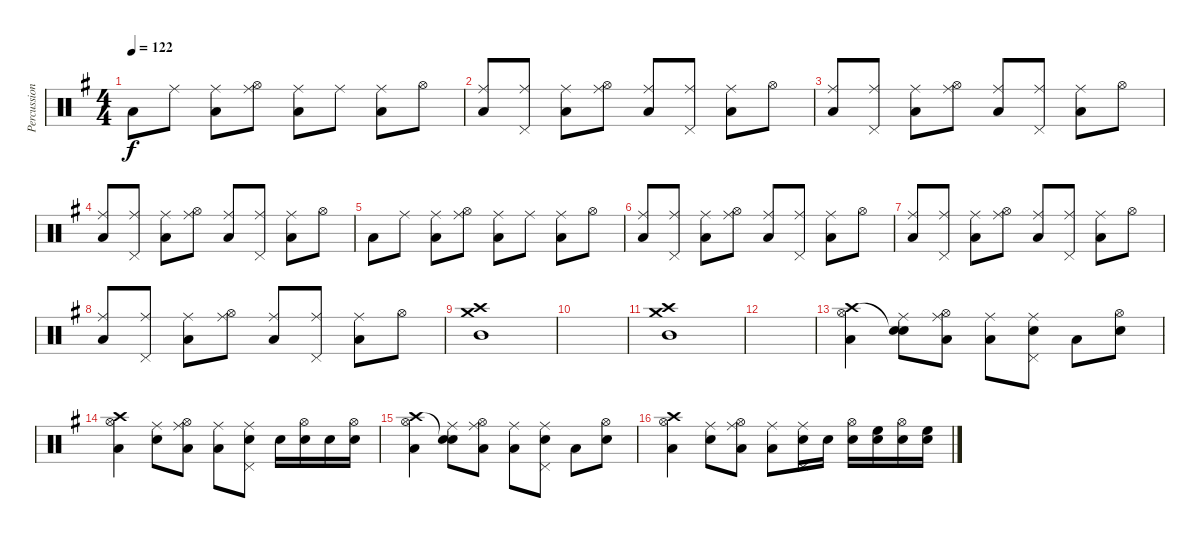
\track ("Percussion" "Percussion") {instrument percussion}
\staff {score}
\articulation defaults
\ts (4 4)
\tempo 122
\clef neutral
\ks g "Low Tom (hit)".8{dy f} "Ride (middle)".8
("Ride (middle)" "Low Tom (hit)").8 ("Ride (middle)" "Hi-Hat (open)").8 ("Ride (middle)" "Low Tom (hit)").8 "Ride (middle)".8 ("Ride (middle)" "Low Tom (hit)").8 "Hi-Hat (open)".8 |
("Ride (middle)" "Low Tom (hit)").8 ("Ride (middle)" "Pedal Hi-Hat (hit)").8 ("Ride (middle)" "Low Tom (hit)").8 ("Ride (middle)" "Hi-Hat (open)").8 ("Ride (middle)" "Low Tom (hit)").8 ("Ride (middle)" "Pedal Hi-Hat (hit)").8 ("Ride (middle)" "Low Tom (hit)").8 "Hi-Hat (open)".8 |
("Ride (middle)" "Low Tom (hit)").8 ("Ride (middle)" "Pedal Hi-Hat (hit)").8 ("Ride (middle)" "Low Tom (hit)").8 ("Ride (middle)" "Hi-Hat (open)").8 ("Ride (middle)" "Low Tom (hit)").8 ("Ride (middle)" "Pedal Hi-Hat (hit)").8 ("Ride (middle)" "Low Tom (hit)").8 "Hi-Hat (open)".8 |
("Ride (middle)" "Low Tom (hit)").8 ("Ride (middle)" "Pedal Hi-Hat (hit)").8 ("Ride (middle)" "Low Tom (hit)").8 ("Ride (middle)" "Hi-Hat (open)").8 ("Ride (middle)" "Low Tom (hit)").8 ("Ride (middle)" "Pedal Hi-Hat (hit)").8 ("Ride (middle)" "Low Tom (hit)").8 "Hi-Hat (open)".8 |
"Low Tom (hit)".8 "Ride (middle)".8 ("Ride (middle)" "Low Tom (hit)").8 ("Ride (middle)" "Hi-Hat (open)").8 ("Ride (middle)" "Low Tom (hit)").8 "Ride (middle)".8 ("Ride (middle)" "Low Tom (hit)").8 "Hi-Hat (open)".8 |
("Ride (middle)" "Low Tom (hit)").8 ("Ride (middle)" "Pedal Hi-Hat (hit)").8 ("Ride (middle)" "Low Tom (hit)").8 ("Ride (middle)" "Hi-Hat (open)").8 ("Ride (middle)" "Low Tom (hit)").8 ("Ride (middle)" "Pedal Hi-Hat (hit)").8 ("Ride (middle)" "Low Tom (hit)").8 "Hi-Hat (open)".8 |
("Ride (middle)" "Low Tom (hit)").8 ("Ride (middle)" "Pedal Hi-Hat (hit)").8 ("Ride (middle)" "Low Tom (hit)").8 ("Ride (middle)" "Hi-Hat (open)").8 ("Ride (middle)" "Low Tom (hit)").8 ("Ride (middle)" "Pedal Hi-Hat (hit)").8 ("Ride (middle)" "Low Tom (hit)").8 "Hi-Hat (open)".8 |
("Ride (middle)" "Low Tom (hit)").8 ("Ride (middle)" "Pedal Hi-Hat (hit)").8 ("Ride (middle)" "Low Tom (hit)").8 ("Ride (middle)" "Hi-Hat (open)").8 ("Ride (middle)" "Low Tom (hit)").8 ("Ride (middle)" "Pedal Hi-Hat (hit)").8 ("Ride (middle)" "Low Tom (hit)").8 "Hi-Hat (open)".8 |
("Crash high (hit)" "Crash medium (hit)" "Mid Tom (hit)").1 |
|
("Crash high (hit)" "Crash medium (hit)" "Mid Tom (hit)").1 |
|
("Crash high (hit)" "Hi-Hat (open)" "Low Tom (hit)").4 ("Snare (hit)"{t} "Ride (middle)" "Electric Snare (hit)").8 ("Hi-Hat (open)" "Ride (middle)" "Low Tom (hit)").8 ("Ride (middle)" "Low Tom (hit)").8 ("Pedal Hi-Hat (hit)" "Ride (middle)" "Electric Snare (hit)").8 "Low Tom (hit)".8 ("Hi-Hat (open)" "Electric Snare (hit)").8 |
("Crash high (hit)" "Hi-Hat (open)" "Low Tom (hit)").4 ("Ride (middle)" "Electric Snare (hit)").8 ("Hi-Hat (open)" "Ride (middle)" "Low Tom (hit)").8 ("Ride (middle)" "Low Tom (hit)").8 ("Pedal Hi-Hat (hit)" "Ride (middle)" "Electric Snare (hit)").8 "Electric Snare (hit)".16 ("Hi-Hat (open)" "Snare (hit) 2").16 "Snare (hit) 2".16 ("Hi-Hat (open)" "Electric Snare (hit)").16 |
("Crash high (hit)" "Hi-Hat (open)" "Low Tom (hit)").4 ("Snare (hit)"{t} "Ride (middle)" "Electric Snare (hit)").8 ("Hi-Hat (open)" "Ride (middle)" "Low Tom (hit)").8 ("Ride (middle)" "Low Tom (hit)").8 ("Pedal Hi-Hat (hit)" "Ride (middle)" "Electric Snare (hit)").8 "Low Tom (hit)".8 ("Hi-Hat (open)" "Electric Snare (hit)").8 |
("Crash high (hit)" "Hi-Hat (open)" "Low Tom (hit)").4 ("Ride (middle)" "Electric Snare (hit)").8 ("Hi-Hat (open)" "Ride (middle)" "Low Tom (hit)").8 ("Ride (middle)" "Low Tom (hit)").8 ("Pedal Hi-Hat (hit)" "Ride (middle)" "Electric Snare (hit)").16 "Electric Snare (hit)".16 ("Hi-Hat (open)" "Snare (hit) 2").16 ("Snare (hit) 2" "High Floor Tom (hit)").16 ("Hi-Hat (open)" "Electric Snare (hit)").16 ("Electric Snare (hit)" "High Floor Tom (hit)").16
